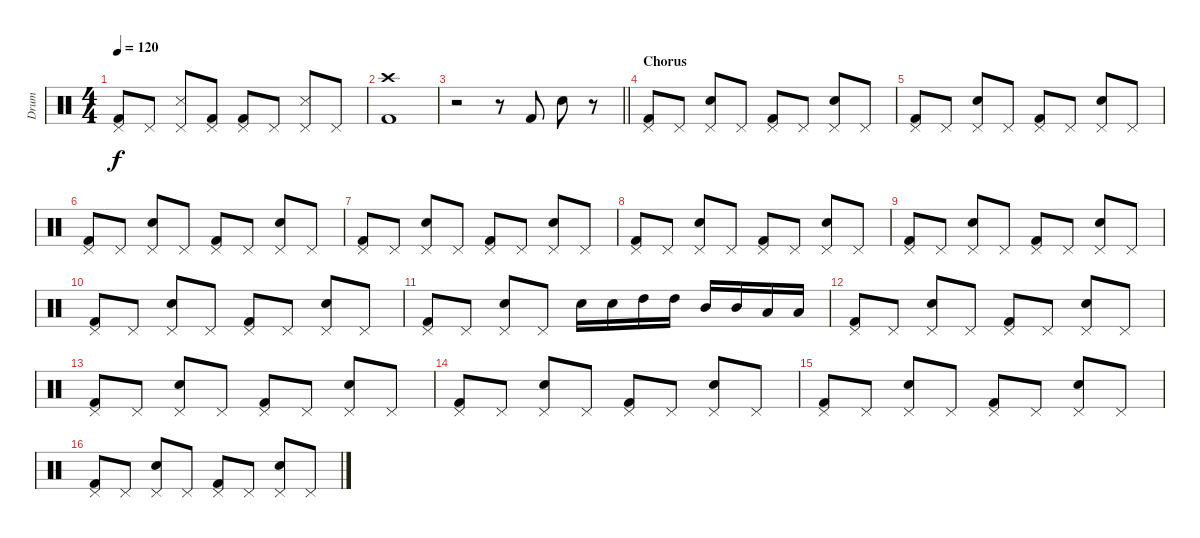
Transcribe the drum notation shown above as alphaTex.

\track ("Drum" "Drum") {instrument percussion}
\staff {score}
\articulation defaults
\ts (4 4)
\tempo 120
\clef neutral
\ks c
("Pedal Hi-Hat (hit)" "Kick (hit) 2").8{dy f} "Pedal Hi-Hat (hit)".8 ("Pedal Hi-Hat (hit)" "Metronome (hit)").8 ("Pedal Hi-Hat (hit)" "Kick (hit) 2").8 ("Pedal Hi-Hat (hit)" "Kick (hit) 2").8 "Pedal Hi-Hat (hit)".8 ("Pedal Hi-Hat (hit)" "Metronome (hit)").8 "Pedal Hi-Hat (hit)".8 |
("Kick (hit) 2" "Crash high (hit)").1 |
\barLineRight lightlight
r.2 r.8 "Kick (hit) 2".8 "Electric Snare (hit)".8 r.8 |
\section ("" "Chorus")
("Pedal Hi-Hat (hit)" "Kick (hit) 2").8 "Pedal Hi-Hat (hit)".8 ("Pedal Hi-Hat (hit)" "Electric Snare (hit)").8 "Pedal Hi-Hat (hit)".8 ("Pedal Hi-Hat (hit)" "Kick (hit) 2").8 "Pedal Hi-Hat (hit)".8 ("Pedal Hi-Hat (hit)" "Electric Snare (hit)").8 "Pedal Hi-Hat (hit)".8 |
("Pedal Hi-Hat (hit)" "Kick (hit) 2").8 "Pedal Hi-Hat (hit)".8 ("Pedal Hi-Hat (hit)" "Electric Snare (hit)").8 "Pedal Hi-Hat (hit)".8 ("Pedal Hi-Hat (hit)" "Kick (hit) 2").8 "Pedal Hi-Hat (hit)".8 ("Pedal Hi-Hat (hit)" "Electric Snare (hit)").8 "Pedal Hi-Hat (hit)".8 |
("Pedal Hi-Hat (hit)" "Kick (hit) 2").8 "Pedal Hi-Hat (hit)".8 ("Pedal Hi-Hat (hit)" "Electric Snare (hit)").8 "Pedal Hi-Hat (hit)".8 ("Pedal Hi-Hat (hit)" "Kick (hit) 2").8 "Pedal Hi-Hat (hit)".8 ("Pedal Hi-Hat (hit)" "Electric Snare (hit)").8 "Pedal Hi-Hat (hit)".8 |
("Pedal Hi-Hat (hit)" "Kick (hit) 2").8 "Pedal Hi-Hat (hit)".8 ("Pedal Hi-Hat (hit)" "Electric Snare (hit)").8 "Pedal Hi-Hat (hit)".8 ("Pedal Hi-Hat (hit)" "Kick (hit) 2").8 "Pedal Hi-Hat (hit)".8 ("Pedal Hi-Hat (hit)" "Electric Snare (hit)").8 "Pedal Hi-Hat (hit)".8 |
("Pedal Hi-Hat (hit)" "Kick (hit) 2").8 "Pedal Hi-Hat (hit)".8 ("Pedal Hi-Hat (hit)" "Electric Snare (hit)").8 "Pedal Hi-Hat (hit)".8 ("Pedal Hi-Hat (hit)" "Kick (hit) 2").8 "Pedal Hi-Hat (hit)".8 ("Pedal Hi-Hat (hit)" "Electric Snare (hit)").8 "Pedal Hi-Hat (hit)".8 |
("Pedal Hi-Hat (hit)" "Kick (hit) 2").8 "Pedal Hi-Hat (hit)".8 ("Pedal Hi-Hat (hit)" "Electric Snare (hit)").8 "Pedal Hi-Hat (hit)".8 ("Pedal Hi-Hat (hit)" "Kick (hit) 2").8 "Pedal Hi-Hat (hit)".8 ("Pedal Hi-Hat (hit)" "Electric Snare (hit)").8 "Pedal Hi-Hat (hit)".8 |
("Pedal Hi-Hat (hit)" "Kick (hit) 2").8 "Pedal Hi-Hat (hit)".8 ("Pedal Hi-Hat (hit)" "Electric Snare (hit)").8 "Pedal Hi-Hat (hit)".8 ("Pedal Hi-Hat (hit)" "Kick (hit) 2").8 "Pedal Hi-Hat (hit)".8 ("Pedal Hi-Hat (hit)" "Electric Snare (hit)").8 "Pedal Hi-Hat (hit)".8 |
("Pedal Hi-Hat (hit)" "Kick (hit) 2").8 "Pedal Hi-Hat (hit)".8 ("Pedal Hi-Hat (hit)" "Electric Snare (hit)").8 "Pedal Hi-Hat (hit)".8 "Electric Snare (hit)".16 "Electric Snare (hit)".16 "High Tom (hit)".16 "High Tom (hit)".16 "Mid Tom (hit)".16 "Mid Tom (hit)".16 "Low Tom (hit)".16 "Low Tom (hit)".16 |
("Pedal Hi-Hat (hit)" "Kick (hit) 2").8 "Pedal Hi-Hat (hit)".8 ("Pedal Hi-Hat (hit)" "Electric Snare (hit)").8 "Pedal Hi-Hat (hit)".8 ("Pedal Hi-Hat (hit)" "Kick (hit) 2").8 "Pedal Hi-Hat (hit)".8 ("Pedal Hi-Hat (hit)" "Electric Snare (hit)").8 "Pedal Hi-Hat (hit)".8 |
("Pedal Hi-Hat (hit)" "Kick (hit) 2").8 "Pedal Hi-Hat (hit)".8 ("Pedal Hi-Hat (hit)" "Electric Snare (hit)").8 "Pedal Hi-Hat (hit)".8 ("Pedal Hi-Hat (hit)" "Kick (hit) 2").8 "Pedal Hi-Hat (hit)".8 ("Pedal Hi-Hat (hit)" "Electric Snare (hit)").8 "Pedal Hi-Hat (hit)".8 |
("Pedal Hi-Hat (hit)" "Kick (hit) 2").8 "Pedal Hi-Hat (hit)".8 ("Pedal Hi-Hat (hit)" "Electric Snare (hit)").8 "Pedal Hi-Hat (hit)".8 ("Pedal Hi-Hat (hit)" "Kick (hit) 2").8 "Pedal Hi-Hat (hit)".8 ("Pedal Hi-Hat (hit)" "Electric Snare (hit)").8 "Pedal Hi-Hat (hit)".8 |
("Pedal Hi-Hat (hit)" "Kick (hit) 2").8 "Pedal Hi-Hat (hit)".8 ("Pedal Hi-Hat (hit)" "Electric Snare (hit)").8 "Pedal Hi-Hat (hit)".8 ("Pedal Hi-Hat (hit)" "Kick (hit) 2").8 "Pedal Hi-Hat (hit)".8 ("Pedal Hi-Hat (hit)" "Electric Snare (hit)").8 "Pedal Hi-Hat (hit)".8 |
("Pedal Hi-Hat (hit)" "Kick (hit) 2").8 "Pedal Hi-Hat (hit)".8 ("Pedal Hi-Hat (hit)" "Electric Snare (hit)").8 "Pedal Hi-Hat (hit)".8 ("Pedal Hi-Hat (hit)" "Kick (hit) 2").8 "Pedal Hi-Hat (hit)".8 ("Pedal Hi-Hat (hit)" "Electric Snare (hit)").8 "Pedal Hi-Hat (hit)".8
